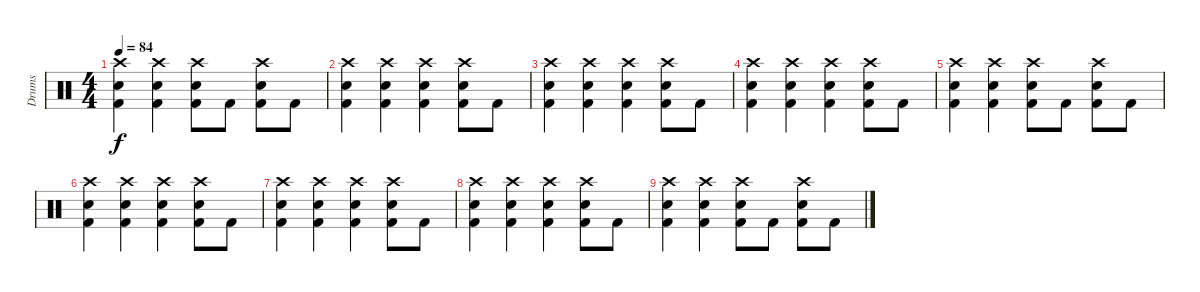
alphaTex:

\track ("Drums" "Drums") {instrument percussion}
\staff {score}
\articulation defaults
\ts (4 4)
\tempo 84
\clef neutral
\ks c
("Crash high (hit)" "Electric Snare (hit)" "Kick (hit) 2").4{dy f} ("Crash high (hit)" "Electric Snare (hit)" "Kick (hit) 2").4 ("Crash high (hit)" "Electric Snare (hit)" "Kick (hit) 2").8 "Kick (hit) 2".8 ("Crash high (hit)" "Electric Snare (hit)" "Kick (hit) 2").8 "Kick (hit) 2".8 |
("Crash high (hit)" "Electric Snare (hit)" "Kick (hit) 2").4 ("Crash high (hit)" "Electric Snare (hit)" "Kick (hit) 2").4 ("Crash high (hit)" "Electric Snare (hit)" "Kick (hit) 2").4 ("Crash high (hit)" "Electric Snare (hit)" "Kick (hit) 2").8 "Kick (hit) 2".8{volume 0} |
("Crash high (hit)" "Electric Snare (hit)" "Kick (hit) 2").4 ("Crash high (hit)" "Electric Snare (hit)" "Kick (hit) 2").4 ("Crash high (hit)" "Electric Snare (hit)" "Kick (hit) 2").4 ("Crash high (hit)" "Electric Snare (hit)" "Kick (hit) 2").8 "Kick (hit) 2".8 |
("Crash high (hit)" "Electric Snare (hit)" "Kick (hit) 2").4 ("Crash high (hit)" "Electric Snare (hit)" "Kick (hit) 2").4 ("Crash high (hit)" "Electric Snare (hit)" "Kick (hit) 2").4 ("Crash high (hit)" "Electric Snare (hit)" "Kick (hit) 2").8 "Kick (hit) 2".8 |
("Crash high (hit)" "Electric Snare (hit)" "Kick (hit) 2").4 ("Crash high (hit)" "Electric Snare (hit)" "Kick (hit) 2").4 ("Crash high (hit)" "Electric Snare (hit)" "Kick (hit) 2").8 "Kick (hit) 2".8 ("Crash high (hit)" "Electric Snare (hit)" "Kick (hit) 2").8 "Kick (hit) 2".8 |
("Crash high (hit)" "Electric Snare (hit)" "Kick (hit) 2").4 ("Crash high (hit)" "Electric Snare (hit)" "Kick (hit) 2").4 ("Crash high (hit)" "Electric Snare (hit)" "Kick (hit) 2").4 ("Crash high (hit)" "Electric Snare (hit)" "Kick (hit) 2").8 "Kick (hit) 2".8 |
("Crash high (hit)" "Electric Snare (hit)" "Kick (hit) 2").4 ("Crash high (hit)" "Electric Snare (hit)" "Kick (hit) 2").4 ("Crash high (hit)" "Electric Snare (hit)" "Kick (hit) 2").4 ("Crash high (hit)" "Electric Snare (hit)" "Kick (hit) 2").8 "Kick (hit) 2".8 |
("Crash high (hit)" "Electric Snare (hit)" "Kick (hit) 2").4 ("Crash high (hit)" "Electric Snare (hit)" "Kick (hit) 2").4 ("Crash high (hit)" "Electric Snare (hit)" "Kick (hit) 2").4 ("Crash high (hit)" "Electric Snare (hit)" "Kick (hit) 2").8 "Kick (hit) 2".8 |
("Crash high (hit)" "Electric Snare (hit)" "Kick (hit) 2").4 ("Crash high (hit)" "Electric Snare (hit)" "Kick (hit) 2").4 ("Crash high (hit)" "Electric Snare (hit)" "Kick (hit) 2").8 "Kick (hit) 2".8 ("Crash high (hit)" "Electric Snare (hit)" "Kick (hit) 2").8 "Kick (hit) 2".8
